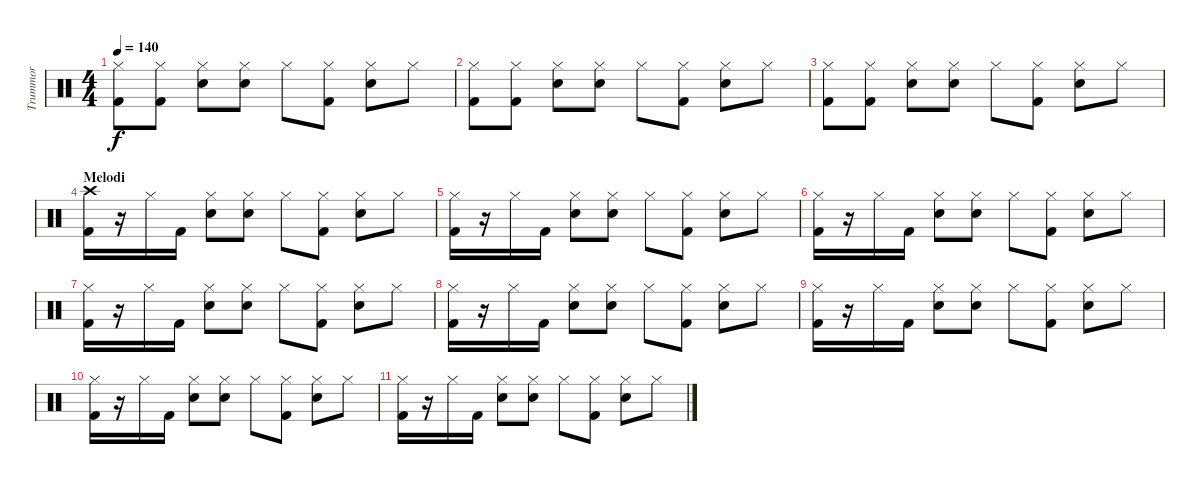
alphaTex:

\track ("Trummor" "Trummor") {instrument percussion}
\staff {score}
\articulation defaults
\ts (4 4)
\tempo 140
\clef neutral
\ks c
("Hi-Hat (closed)" "Kick (hit) 2").8{dy f} ("Hi-Hat (closed)" "Kick (hit) 2").8 ("Hi-Hat (closed)" "Electric Snare (hit)").8 ("Hi-Hat (closed)" "Electric Snare (hit)").8 "Hi-Hat (closed)".8 ("Hi-Hat (closed)" "Kick (hit) 2").8 ("Hi-Hat (closed)" "Electric Snare (hit)").8 "Hi-Hat (closed)".8 |
("Hi-Hat (closed)" "Kick (hit) 2").8 ("Hi-Hat (closed)" "Kick (hit) 2").8 ("Hi-Hat (closed)" "Electric Snare (hit)").8 ("Hi-Hat (closed)" "Electric Snare (hit)").8 "Hi-Hat (closed)".8 ("Hi-Hat (closed)" "Kick (hit) 2").8 ("Hi-Hat (closed)" "Electric Snare (hit)").8 "Hi-Hat (closed)".8 |
("Hi-Hat (closed)" "Kick (hit) 2").8 ("Hi-Hat (closed)" "Kick (hit) 2").8 ("Hi-Hat (closed)" "Electric Snare (hit)").8 ("Hi-Hat (closed)" "Electric Snare (hit)").8 "Hi-Hat (closed)".8 ("Hi-Hat (closed)" "Kick (hit) 2").8 ("Hi-Hat (closed)" "Electric Snare (hit)").8 "Hi-Hat (closed)".8 |
\section ("" "Melodi")
("Crash high (hit)" "Kick (hit) 2").16 r.16 "Hi-Hat (closed)".16 "Kick (hit) 2".16 ("Hi-Hat (closed)" "Electric Snare (hit)").8 ("Hi-Hat (closed)" "Electric Snare (hit)").8 "Hi-Hat (closed)".8 ("Hi-Hat (closed)" "Kick (hit) 2").8 ("Hi-Hat (closed)" "Electric Snare (hit)").8 "Hi-Hat (closed)".8 |
("Hi-Hat (closed)" "Kick (hit) 2").16 r.16 "Hi-Hat (closed)".16 "Kick (hit) 2".16 ("Hi-Hat (closed)" "Electric Snare (hit)").8 ("Hi-Hat (closed)" "Electric Snare (hit)").8 "Hi-Hat (closed)".8 ("Hi-Hat (closed)" "Kick (hit) 2").8 ("Hi-Hat (closed)" "Electric Snare (hit)").8 "Hi-Hat (closed)".8 |
("Hi-Hat (closed)" "Kick (hit) 2").16 r.16 "Hi-Hat (closed)".16 "Kick (hit) 2".16 ("Hi-Hat (closed)" "Electric Snare (hit)").8 ("Hi-Hat (closed)" "Electric Snare (hit)").8 "Hi-Hat (closed)".8 ("Hi-Hat (closed)" "Kick (hit) 2").8 ("Hi-Hat (closed)" "Electric Snare (hit)").8 "Hi-Hat (closed)".8 |
("Hi-Hat (closed)" "Kick (hit) 2").16 r.16 "Hi-Hat (closed)".16 "Kick (hit) 2".16 ("Hi-Hat (closed)" "Electric Snare (hit)").8 ("Hi-Hat (closed)" "Electric Snare (hit)").8 "Hi-Hat (closed)".8 ("Hi-Hat (closed)" "Kick (hit) 2").8 ("Hi-Hat (closed)" "Electric Snare (hit)").8 "Hi-Hat (closed)".8 |
("Hi-Hat (closed)" "Kick (hit) 2").16 r.16 "Hi-Hat (closed)".16 "Kick (hit) 2".16 ("Hi-Hat (closed)" "Electric Snare (hit)").8 ("Hi-Hat (closed)" "Electric Snare (hit)").8 "Hi-Hat (closed)".8 ("Hi-Hat (closed)" "Kick (hit) 2").8 ("Hi-Hat (closed)" "Electric Snare (hit)").8 "Hi-Hat (closed)".8 |
("Hi-Hat (closed)" "Kick (hit) 2").16 r.16 "Hi-Hat (closed)".16 "Kick (hit) 2".16 ("Hi-Hat (closed)" "Electric Snare (hit)").8 ("Hi-Hat (closed)" "Electric Snare (hit)").8 "Hi-Hat (closed)".8 ("Hi-Hat (closed)" "Kick (hit) 2").8 ("Hi-Hat (closed)" "Electric Snare (hit)").8 "Hi-Hat (closed)".8 |
("Hi-Hat (closed)" "Kick (hit) 2").16 r.16 "Hi-Hat (closed)".16 "Kick (hit) 2".16 ("Hi-Hat (closed)" "Electric Snare (hit)").8 ("Hi-Hat (closed)" "Electric Snare (hit)").8 "Hi-Hat (closed)".8 ("Hi-Hat (closed)" "Kick (hit) 2").8 ("Hi-Hat (closed)" "Electric Snare (hit)").8 "Hi-Hat (closed)".8 |
("Hi-Hat (closed)" "Kick (hit) 2").16 r.16 "Hi-Hat (closed)".16 "Kick (hit) 2".16 ("Hi-Hat (closed)" "Electric Snare (hit)").8 ("Hi-Hat (closed)" "Electric Snare (hit)").8 "Hi-Hat (closed)".8 ("Hi-Hat (closed)" "Kick (hit) 2").8 ("Hi-Hat (closed)" "Electric Snare (hit)").8 "Hi-Hat (closed)".8
